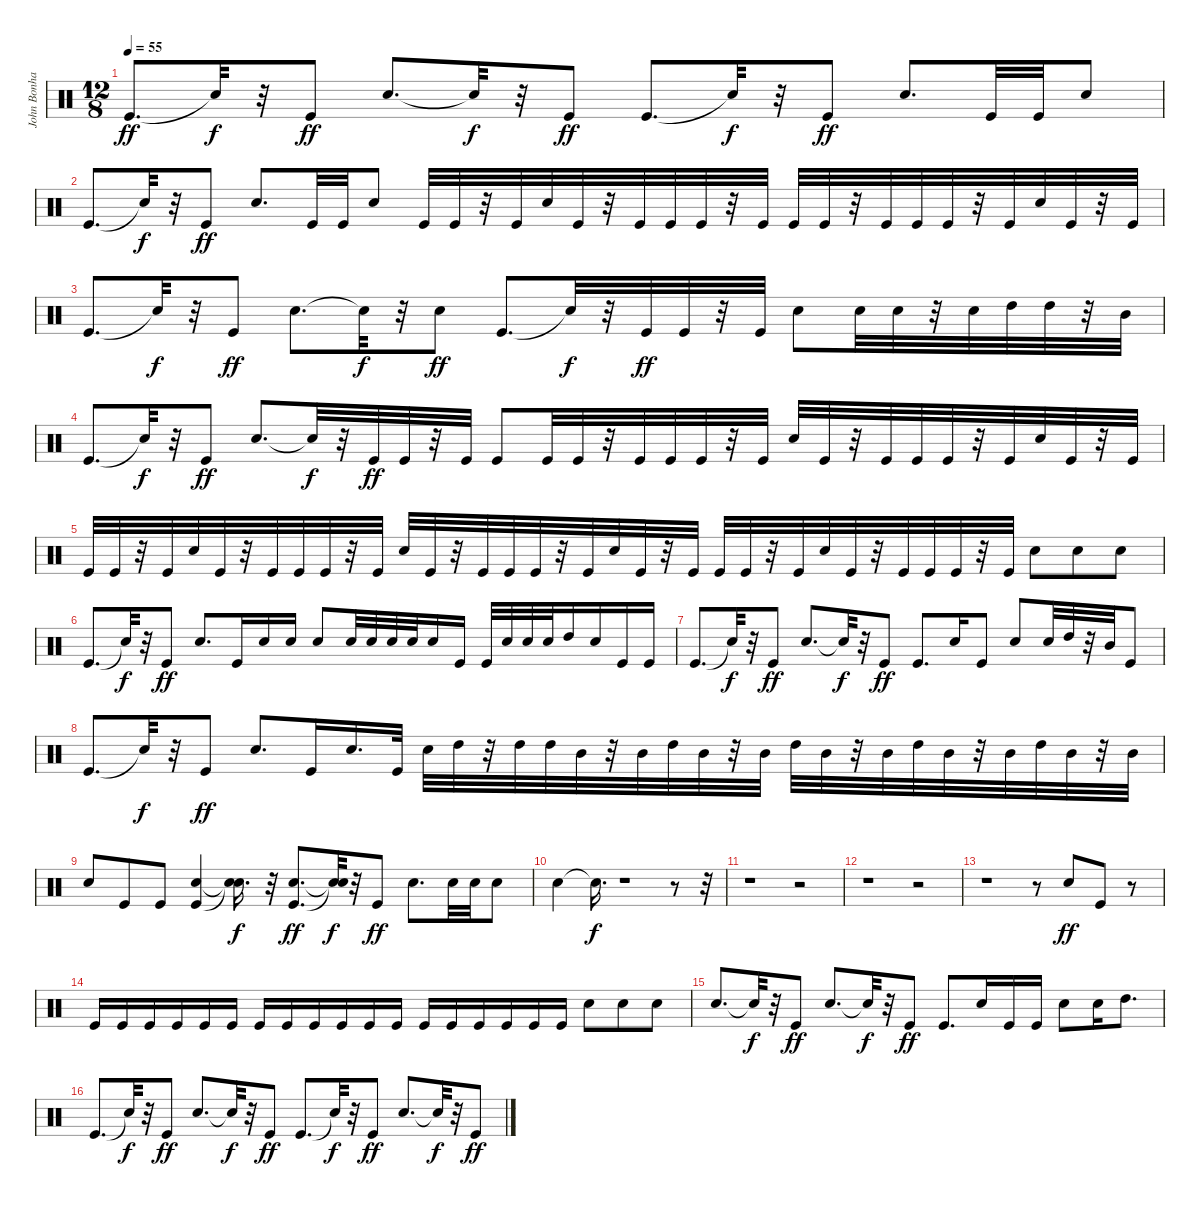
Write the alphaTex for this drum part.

\track ("John Bonham - Drums" "John Bonha") {instrument percussion}
\staff {score}
\articulation defaults
\ts (12 8)
\tempo 55
\clef neutral
\ks c "Kick (hit)".8{d dy ff} "Snare (hit)"{t}.32{dy f}
r.32 "Kick (hit)".8{dy ff} "Snare (hit) 2".8{d} "Snare (hit)"{t}.32{dy f} r.32 "Kick (hit)".8{dy ff} "Kick (hit)".8{d} "Snare (hit)"{t}.32{dy f} r.32 "Kick (hit)".8{dy ff} "Snare (hit) 2".8{d} "Kick (hit)".32 "Kick (hit)".32 "Snare (hit) 2".8 |
"Kick (hit)".8{d} "Snare (hit)"{t}.32{dy f} r.32 "Kick (hit)".8{dy ff} "Snare (hit) 2".8{d} "Kick (hit)".32 "Kick (hit)".32 "Snare (hit) 2".8 "Kick (hit)".32 "Kick (hit)".32 r.32 "Kick (hit)".32 "Snare (hit) 2".32 "Kick (hit)".32 r.32 "Kick (hit)".32 "Kick (hit)".32 "Kick (hit)".32 r.32 "Kick (hit)".32 "Kick (hit)".32 "Kick (hit)".32 r.32 "Kick (hit)".32 "Kick (hit)".32 "Kick (hit)".32 r.32 "Kick (hit)".32 "Snare (hit) 2".32 "Kick (hit)".32 r.32 "Kick (hit)".32 |
"Kick (hit)".8{d} "Snare (hit)"{t}.32{dy f} r.32 "Kick (hit)".8{dy ff} "Snare (hit) 2".8{d} "Snare (hit)"{t}.32{dy f} r.32 "Snare (hit) 2".8{dy ff} "Kick (hit)".8{d} "Snare (hit)"{t}.32{dy f} r.32 "Kick (hit)".32{dy ff} "Kick (hit)".32 r.32 "Kick (hit)".32 "Snare (hit) 2".8 "Snare (hit) 2".32 "Snare (hit) 2".32 r.32 "Snare (hit) 2".32 "High Tom (hit)".32 "High Tom (hit)".32 r.32 "Mid Tom (hit)".32 |
"Kick (hit)".8{d} "Snare (hit)"{t}.32{dy f} r.32 "Kick (hit)".8{dy ff} "Snare (hit) 2".8{d} "Snare (hit)"{t}.32{dy f} r.32 "Kick (hit)".32{dy ff} "Kick (hit)".32 r.32 "Kick (hit)".32 "Kick (hit)".8 "Kick (hit)".32 "Kick (hit)".32 r.32 "Kick (hit)".32 "Kick (hit)".32 "Kick (hit)".32 r.32 "Kick (hit)".32 "Snare (hit) 2".32 "Kick (hit)".32 r.32 "Kick (hit)".32 "Kick (hit)".32 "Kick (hit)".32 r.32 "Kick (hit)".32 "Snare (hit) 2".32 "Kick (hit)".32 r.32 "Kick (hit)".32 |
"Kick (hit)".32 "Kick (hit)".32 r.32 "Kick (hit)".32 "Snare (hit) 2".32 "Kick (hit)".32 r.32 "Kick (hit)".32 "Kick (hit)".32 "Kick (hit)".32 r.32 "Kick (hit)".32 "Snare (hit) 2".32 "Kick (hit)".32 r.32 "Kick (hit)".32 "Kick (hit)".32 "Kick (hit)".32 r.32 "Kick (hit)".32 "Snare (hit) 2".32 "Kick (hit)".32 r.32 "Kick (hit)".32 "Kick (hit)".32 "Kick (hit)".32 r.32 "Kick (hit)".32 "Snare (hit) 2".32 "Kick (hit)".32 r.32 "Kick (hit)".32 "Kick (hit)".32 "Kick (hit)".32 r.32 "Kick (hit)".32 "Snare (hit) 2".8 "Snare (hit) 2".8 "Snare (hit) 2".8 |
"Kick (hit)".8{d} "Snare (hit)"{t}.32{dy f} r.32 "Kick (hit)".8{dy ff} "Snare (hit) 2".8{d} "Kick (hit)".16 "Snare (hit) 2".16 "Snare (hit) 2".16 "Snare (hit) 2".8 "Snare (hit) 2".32 "Snare (hit) 2".32 "Snare (hit) 2".32 "Snare (hit) 2".32 "Snare (hit) 2".16 "Kick (hit)".16 "Kick (hit)".32 "Snare (hit) 2".32 "Snare (hit) 2".32 "Snare (hit) 2".32 "High Tom (hit)".16 "Snare (hit) 2".16 "Kick (hit)".16 "Kick (hit)".16 |
"Kick (hit)".8{d} "Snare (hit)"{t}.32{dy f} r.32 "Kick (hit)".8{dy ff} "Snare (hit) 2".8{d} "Snare (hit)"{t}.32{dy f} r.32 "Kick (hit)".8{dy ff} "Kick (hit)".8{d} "Snare (hit) 2".16 "Kick (hit)".8 "Snare (hit) 2".8 "Snare (hit) 2".32 "High Tom (hit)".32 r.32 "Mid Tom (hit)".32 "Kick (hit)".8 |
"Kick (hit)".8{d} "Snare (hit)"{t}.32{dy f} r.32 "Kick (hit)".8{dy ff} "Snare (hit) 2".8{d} "Kick (hit)".16 "Snare (hit) 2".16{d} "Kick (hit)".32 "Snare (hit) 2".32 "High Tom (hit)".32 r.32 "High Tom (hit)".32 "High Tom (hit)".32 "Mid Tom (hit)".32 r.32 "Mid Tom (hit)".32 "High Tom (hit)".32 "Mid Tom (hit)".32 r.32 "Mid Tom (hit)".32 "High Tom (hit)".32 "Mid Tom (hit)".32 r.32 "Mid Tom (hit)".32 "High Tom (hit)".32 "Mid Tom (hit)".32 r.32 "Mid Tom (hit)".32 "High Tom (hit)".32 "Mid Tom (hit)".32 r.32 "Mid Tom (hit)".32 |
"Snare (hit) 2".8 "Kick (hit)".8 "Kick (hit)".8 ("Kick (hit)" "Snare (hit) 2").4 ("Snare (hit)"{t} "Snare (hit)"{t}).16{d dy f} r.32 ("Kick (hit)" "Snare (hit) 2").8{d dy ff} ("Snare (hit)"{t} "Snare (hit)"{t}).32{dy f} r.32 "Kick (hit)".8{dy ff} "Snare (hit) 2".8{d} "Snare (hit) 2".32 "Snare (hit) 2".32 "Snare (hit) 2".8 |
"Snare (hit) 2".4 "Snare (hit)"{t}.16{d dy f} r.1 r.8 r.32 |
r.1 r.2 |
r.1 r.2 |
r.1 r.8 "Snare (hit) 2".8{dy ff} "Kick (hit)".8 r.8 |
"Kick (hit)".16 "Kick (hit)".16 "Kick (hit)".16 "Kick (hit)".16 "Kick (hit)".16 "Kick (hit)".16 "Kick (hit)".16 "Kick (hit)".16 "Kick (hit)".16 "Kick (hit)".16 "Kick (hit)".16 "Kick (hit)".16 "Kick (hit)".16 "Kick (hit)".16 "Kick (hit)".16 "Kick (hit)".16 "Kick (hit)".16 "Kick (hit)".16 "Snare (hit) 2".8 "Snare (hit) 2".8 "Snare (hit) 2".8 |
"Snare (hit) 2".8{d} "Snare (hit)"{t}.32{dy f} r.32 "Kick (hit)".8{dy ff} "Snare (hit) 2".8{d} "Snare (hit)"{t}.32{dy f} r.32 "Kick (hit)".8{dy ff} "Kick (hit)".8{d} "Snare (hit) 2".16 "Kick (hit)".16 "Kick (hit)".16 "Snare (hit) 2".8 "Snare (hit) 2".16 "High Tom (hit)".8{d} |
"Kick (hit)".8{d} "Snare (hit)"{t}.32{dy f} r.32 "Kick (hit)".8{dy ff} "Snare (hit) 2".8{d} "Snare (hit)"{t}.32{dy f} r.32 "Kick (hit)".8{dy ff} "Kick (hit)".8{d} "Snare (hit)"{t}.32{dy f} r.32 "Kick (hit)".8{dy ff} "Snare (hit) 2".8{d} "Snare (hit)"{t}.32{dy f} r.32 "Kick (hit)".8{dy ff}
